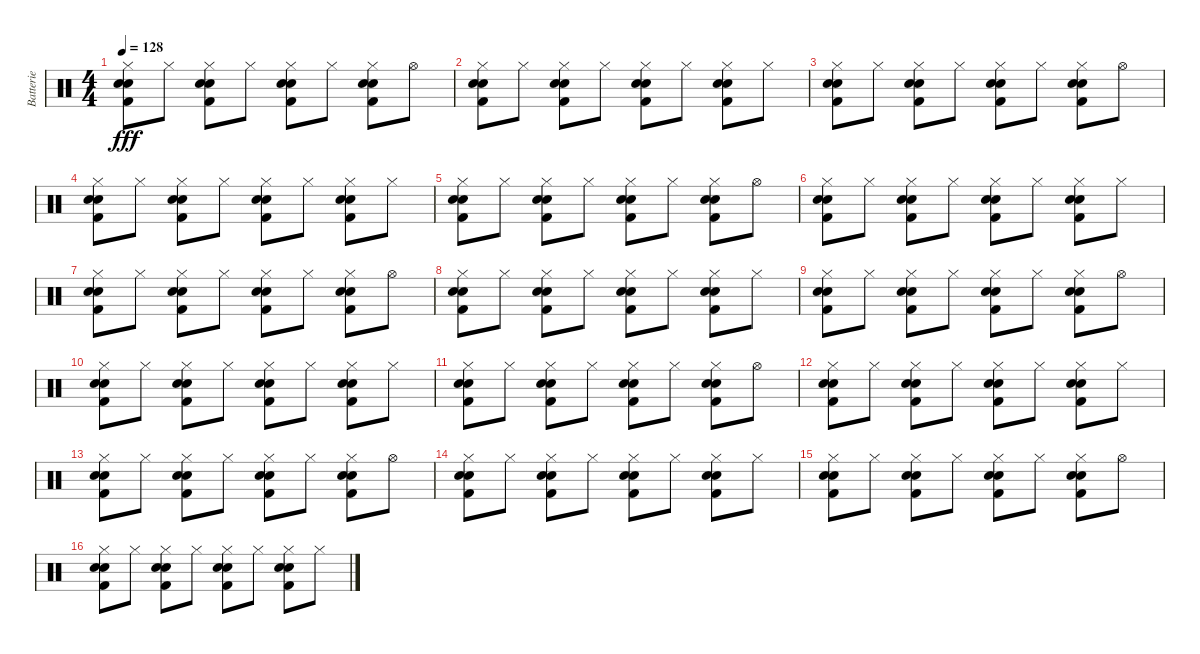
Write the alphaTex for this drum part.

\track ("Batterie" "Batterie") {instrument percussion}
\staff {score}
\articulation defaults
\ts (4 4)
\tempo 128
\clef neutral
\ks c
("Snare (hit) 2" "Kick (hit) 2" "Hi-Hat (closed)" "Electric Snare (hit)").8{dy fff} "Hi-Hat (closed)".8 ("Snare (hit) 2" "Kick (hit) 2" "Hi-Hat (closed)" "Electric Snare (hit)").8 "Hi-Hat (closed)".8 ("Kick (hit) 2" "Snare (hit) 2" "Hi-Hat (closed)" "Electric Snare (hit)").8 "Hi-Hat (closed)".8 ("Kick (hit) 2" "Snare (hit) 2" "Hi-Hat (closed)" "Electric Snare (hit)").8 "Hi-Hat (open)".8 |
("Snare (hit) 2" "Kick (hit) 2" "Hi-Hat (closed)" "Electric Snare (hit)").8 "Hi-Hat (closed)".8 ("Kick (hit) 2" "Snare (hit) 2" "Hi-Hat (closed)" "Electric Snare (hit)").8 "Hi-Hat (closed)".8 ("Snare (hit) 2" "Kick (hit) 2" "Hi-Hat (closed)" "Electric Snare (hit)").8 "Hi-Hat (closed)".8 ("Snare (hit) 2" "Kick (hit) 2" "Hi-Hat (closed)" "Electric Snare (hit)").8 "Hi-Hat (closed)".8 |
("Snare (hit) 2" "Kick (hit) 2" "Hi-Hat (closed)" "Electric Snare (hit)").8 "Hi-Hat (closed)".8 ("Snare (hit) 2" "Kick (hit) 2" "Hi-Hat (closed)" "Electric Snare (hit)").8 "Hi-Hat (closed)".8 ("Kick (hit) 2" "Snare (hit) 2" "Hi-Hat (closed)" "Electric Snare (hit)").8 "Hi-Hat (closed)".8 ("Kick (hit) 2" "Snare (hit) 2" "Hi-Hat (closed)" "Electric Snare (hit)").8 "Hi-Hat (open)".8 |
("Snare (hit) 2" "Kick (hit) 2" "Hi-Hat (closed)" "Electric Snare (hit)").8 "Hi-Hat (closed)".8 ("Kick (hit) 2" "Snare (hit) 2" "Hi-Hat (closed)" "Electric Snare (hit)").8 "Hi-Hat (closed)".8 ("Snare (hit) 2" "Kick (hit) 2" "Hi-Hat (closed)" "Electric Snare (hit)").8 "Hi-Hat (closed)".8 ("Snare (hit) 2" "Kick (hit) 2" "Hi-Hat (closed)" "Electric Snare (hit)").8 "Hi-Hat (closed)".8 |
("Snare (hit) 2" "Kick (hit) 2" "Hi-Hat (closed)" "Electric Snare (hit)").8 "Hi-Hat (closed)".8 ("Snare (hit) 2" "Kick (hit) 2" "Hi-Hat (closed)" "Electric Snare (hit)").8 "Hi-Hat (closed)".8 ("Kick (hit) 2" "Snare (hit) 2" "Hi-Hat (closed)" "Electric Snare (hit)").8 "Hi-Hat (closed)".8 ("Kick (hit) 2" "Snare (hit) 2" "Hi-Hat (closed)" "Electric Snare (hit)").8 "Hi-Hat (open)".8 |
("Snare (hit) 2" "Kick (hit) 2" "Hi-Hat (closed)" "Electric Snare (hit)").8 "Hi-Hat (closed)".8 ("Kick (hit) 2" "Snare (hit) 2" "Hi-Hat (closed)" "Electric Snare (hit)").8 "Hi-Hat (closed)".8 ("Snare (hit) 2" "Kick (hit) 2" "Hi-Hat (closed)" "Electric Snare (hit)").8 "Hi-Hat (closed)".8 ("Snare (hit) 2" "Kick (hit) 2" "Hi-Hat (closed)" "Electric Snare (hit)").8 "Hi-Hat (closed)".8 |
("Snare (hit) 2" "Kick (hit) 2" "Hi-Hat (closed)" "Electric Snare (hit)").8 "Hi-Hat (closed)".8 ("Snare (hit) 2" "Kick (hit) 2" "Hi-Hat (closed)" "Electric Snare (hit)").8 "Hi-Hat (closed)".8 ("Kick (hit) 2" "Snare (hit) 2" "Hi-Hat (closed)" "Electric Snare (hit)").8 "Hi-Hat (closed)".8 ("Kick (hit) 2" "Snare (hit) 2" "Hi-Hat (closed)" "Electric Snare (hit)").8 "Hi-Hat (open)".8 |
("Snare (hit) 2" "Kick (hit) 2" "Hi-Hat (closed)" "Electric Snare (hit)").8 "Hi-Hat (closed)".8 ("Kick (hit) 2" "Snare (hit) 2" "Hi-Hat (closed)" "Electric Snare (hit)").8 "Hi-Hat (closed)".8 ("Snare (hit) 2" "Kick (hit) 2" "Hi-Hat (closed)" "Electric Snare (hit)").8 "Hi-Hat (closed)".8 ("Snare (hit) 2" "Kick (hit) 2" "Hi-Hat (closed)" "Electric Snare (hit)").8 "Hi-Hat (closed)".8 |
("Snare (hit) 2" "Kick (hit) 2" "Hi-Hat (closed)" "Electric Snare (hit)").8 "Hi-Hat (closed)".8 ("Snare (hit) 2" "Kick (hit) 2" "Hi-Hat (closed)" "Electric Snare (hit)").8 "Hi-Hat (closed)".8 ("Kick (hit) 2" "Snare (hit) 2" "Hi-Hat (closed)" "Electric Snare (hit)").8 "Hi-Hat (closed)".8 ("Kick (hit) 2" "Snare (hit) 2" "Hi-Hat (closed)" "Electric Snare (hit)").8 "Hi-Hat (open)".8 |
("Snare (hit) 2" "Kick (hit) 2" "Hi-Hat (closed)" "Electric Snare (hit)").8 "Hi-Hat (closed)".8 ("Kick (hit) 2" "Snare (hit) 2" "Hi-Hat (closed)" "Electric Snare (hit)").8 "Hi-Hat (closed)".8 ("Snare (hit) 2" "Kick (hit) 2" "Hi-Hat (closed)" "Electric Snare (hit)").8 "Hi-Hat (closed)".8 ("Snare (hit) 2" "Kick (hit) 2" "Hi-Hat (closed)" "Electric Snare (hit)").8 "Hi-Hat (closed)".8 |
("Snare (hit) 2" "Kick (hit) 2" "Hi-Hat (closed)" "Electric Snare (hit)").8 "Hi-Hat (closed)".8 ("Snare (hit) 2" "Kick (hit) 2" "Hi-Hat (closed)" "Electric Snare (hit)").8 "Hi-Hat (closed)".8 ("Kick (hit) 2" "Snare (hit) 2" "Hi-Hat (closed)" "Electric Snare (hit)").8 "Hi-Hat (closed)".8 ("Kick (hit) 2" "Snare (hit) 2" "Hi-Hat (closed)" "Electric Snare (hit)").8 "Hi-Hat (open)".8 |
("Snare (hit) 2" "Kick (hit) 2" "Hi-Hat (closed)" "Electric Snare (hit)").8 "Hi-Hat (closed)".8 ("Kick (hit) 2" "Snare (hit) 2" "Hi-Hat (closed)" "Electric Snare (hit)").8 "Hi-Hat (closed)".8 ("Snare (hit) 2" "Kick (hit) 2" "Hi-Hat (closed)" "Electric Snare (hit)").8 "Hi-Hat (closed)".8 ("Snare (hit) 2" "Kick (hit) 2" "Hi-Hat (closed)" "Electric Snare (hit)").8 "Hi-Hat (closed)".8 |
("Snare (hit) 2" "Kick (hit) 2" "Hi-Hat (closed)" "Electric Snare (hit)").8 "Hi-Hat (closed)".8 ("Snare (hit) 2" "Kick (hit) 2" "Hi-Hat (closed)" "Electric Snare (hit)").8 "Hi-Hat (closed)".8 ("Kick (hit) 2" "Snare (hit) 2" "Hi-Hat (closed)" "Electric Snare (hit)").8 "Hi-Hat (closed)".8 ("Kick (hit) 2" "Snare (hit) 2" "Hi-Hat (closed)" "Electric Snare (hit)").8 "Hi-Hat (open)".8 |
("Snare (hit) 2" "Kick (hit) 2" "Hi-Hat (closed)" "Electric Snare (hit)").8 "Hi-Hat (closed)".8 ("Kick (hit) 2" "Snare (hit) 2" "Hi-Hat (closed)" "Electric Snare (hit)").8 "Hi-Hat (closed)".8 ("Snare (hit) 2" "Kick (hit) 2" "Hi-Hat (closed)" "Electric Snare (hit)").8 "Hi-Hat (closed)".8 ("Snare (hit) 2" "Kick (hit) 2" "Hi-Hat (closed)" "Electric Snare (hit)").8 "Hi-Hat (closed)".8 |
("Snare (hit) 2" "Kick (hit) 2" "Hi-Hat (closed)" "Electric Snare (hit)").8 "Hi-Hat (closed)".8 ("Snare (hit) 2" "Kick (hit) 2" "Hi-Hat (closed)" "Electric Snare (hit)").8 "Hi-Hat (closed)".8 ("Kick (hit) 2" "Snare (hit) 2" "Hi-Hat (closed)" "Electric Snare (hit)").8 "Hi-Hat (closed)".8 ("Kick (hit) 2" "Snare (hit) 2" "Hi-Hat (closed)" "Electric Snare (hit)").8 "Hi-Hat (open)".8 |
("Snare (hit) 2" "Kick (hit) 2" "Hi-Hat (closed)" "Electric Snare (hit)").8 "Hi-Hat (closed)".8 ("Kick (hit) 2" "Snare (hit) 2" "Hi-Hat (closed)" "Electric Snare (hit)").8 "Hi-Hat (closed)".8 ("Snare (hit) 2" "Kick (hit) 2" "Hi-Hat (closed)" "Electric Snare (hit)").8 "Hi-Hat (closed)".8 ("Snare (hit) 2" "Kick (hit) 2" "Hi-Hat (closed)" "Electric Snare (hit)").8 "Hi-Hat (closed)".8
